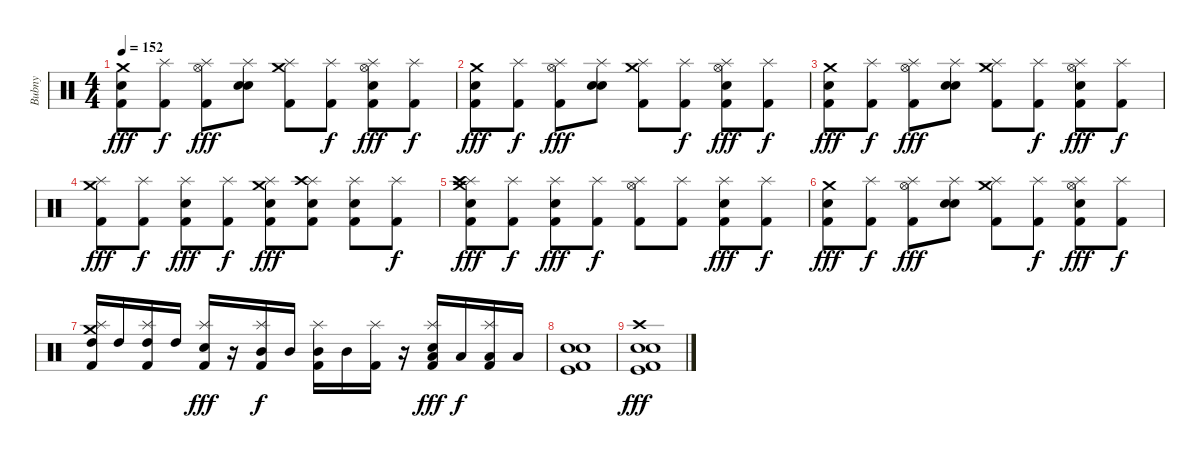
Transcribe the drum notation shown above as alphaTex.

\track ("Bubny" "Bubny") {instrument percussion}
\staff {score}
\articulation defaults
\ts (4 4)
\tempo 152
\clef neutral
\ks c
("Kick (hit) 2" "Electric Snare (hit)" "Crash medium (hit)").8{dy fff} ("Splash (hit)" "Kick (hit) 2").8{dy f} ("Splash (hit)" "Kick (hit) 2" "Hi-Hat (open)").8{dy fff} ("Splash (hit)" "Electric Snare (hit)" "Snare (hit) 2").8 ("Splash (hit)" "Kick (hit) 2" "Crash medium (hit)").8 ("Splash (hit)" "Kick (hit) 2").8{dy f} ("Splash (hit)" "Kick (hit) 2" "Snare (hit) 2" "Hi-Hat (open)").8{dy fff} ("Splash (hit)" "Kick (hit) 2").8{dy f} |
("Kick (hit) 2" "Electric Snare (hit)" "Crash medium (hit)").8{dy fff} ("Splash (hit)" "Kick (hit) 2").8{dy f} ("Splash (hit)" "Kick (hit) 2" "Hi-Hat (open)").8{dy fff} ("Splash (hit)" "Electric Snare (hit)" "Snare (hit) 2").8 ("Splash (hit)" "Kick (hit) 2" "Crash medium (hit)").8 ("Splash (hit)" "Kick (hit) 2").8{dy f} ("Splash (hit)" "Kick (hit) 2" "Snare (hit) 2" "Hi-Hat (open)").8{dy fff} ("Splash (hit)" "Kick (hit) 2").8{dy f} |
("Kick (hit) 2" "Electric Snare (hit)" "Crash medium (hit)").8{dy fff} ("Splash (hit)" "Kick (hit) 2").8{dy f} ("Splash (hit)" "Kick (hit) 2" "Hi-Hat (open)").8{dy fff} ("Splash (hit)" "Electric Snare (hit)" "Snare (hit) 2").8 ("Splash (hit)" "Kick (hit) 2" "Crash medium (hit)").8 ("Splash (hit)" "Kick (hit) 2").8{dy f} ("Splash (hit)" "Kick (hit) 2" "Snare (hit) 2" "Hi-Hat (open)").8{dy fff} ("Splash (hit)" "Kick (hit) 2").8{dy f} |
("Splash (hit)" "Kick (hit) 2" "Crash medium (hit)").8{dy fff} ("Splash (hit)" "Kick (hit) 2").8{dy f} ("Splash (hit)" "Kick (hit) 2" "Snare (hit) 2").8{dy fff} ("Splash (hit)" "Kick (hit) 2").8{dy f} ("Splash (hit)" "Kick (hit) 2" "Crash medium (hit)" "Snare (hit) 2").8{dy fff} ("Splash (hit)" "Kick (hit) 2" "Crash high (hit)" "Snare (hit) 2").8 ("Splash (hit)" "Kick (hit) 2" "Snare (hit) 2").8 ("Splash (hit)" "Kick (hit) 2").8{dy f} |
("Splash (hit)" "Kick (hit) 2" "Crash high (hit)" "Snare (hit) 2" "Crash medium (hit)").8{dy fff} ("Splash (hit)" "Kick (hit) 2").8{dy f} ("Splash (hit)" "Kick (hit) 2" "Snare (hit) 2").8{dy fff} ("Splash (hit)" "Kick (hit) 2").8{dy f} ("Splash (hit)" "Kick (hit) 2" "Hi-Hat (open)").8 ("Splash (hit)" "Kick (hit) 2").8 ("Splash (hit)" "Kick (hit) 2" "Snare (hit) 2").8{dy fff} ("Splash (hit)" "Kick (hit) 2").8{dy f} |
("Kick (hit) 2" "Electric Snare (hit)" "Crash medium (hit)").8{dy fff} ("Splash (hit)" "Kick (hit) 2").8{dy f} ("Splash (hit)" "Kick (hit) 2" "Hi-Hat (open)").8{dy fff} ("Splash (hit)" "Electric Snare (hit)" "Snare (hit) 2").8 ("Splash (hit)" "Kick (hit) 2" "Crash medium (hit)").8 ("Splash (hit)" "Kick (hit) 2").8{dy f} ("Splash (hit)" "Kick (hit) 2" "Snare (hit) 2" "Hi-Hat (open)").8{dy fff} ("Splash (hit)" "Kick (hit) 2").8{dy f} |
("Splash (hit)" "Kick (hit) 2" "High Tom (hit)" "Crash medium (hit)").16 "High Tom (hit)".16 ("Splash (hit)" "Kick (hit) 2" "High Tom (hit)").16 "High Tom (hit)".16 ("Splash (hit)" "Kick (hit) 2" "Snare (hit) 2").16{dy fff} r.16 ("Splash (hit)" "Kick (hit) 2" "Mid Tom (hit)").16{dy f} "Mid Tom (hit)".16 ("Splash (hit)" "Kick (hit) 2" "Mid Tom (hit)").16 "Mid Tom (hit)".16 ("Splash (hit)" "Kick (hit) 2").16 r.16 ("Splash (hit)" "Kick (hit) 2" "Snare (hit) 2" "Low Tom (hit)").16{dy fff} "Low Tom (hit)".16{dy f} ("Splash (hit)" "Kick (hit) 2" "Low Tom (hit)").16 "Low Tom (hit)".16 |
("Kick (hit) 2" "Kick (hit)" "Electric Snare (hit)" "Snare (hit) 2").1 |
("Kick (hit)" "Kick (hit) 2" "Snare (hit) 2" "Electric Snare (hit)" "Crash high (hit)").1{dy fff}
